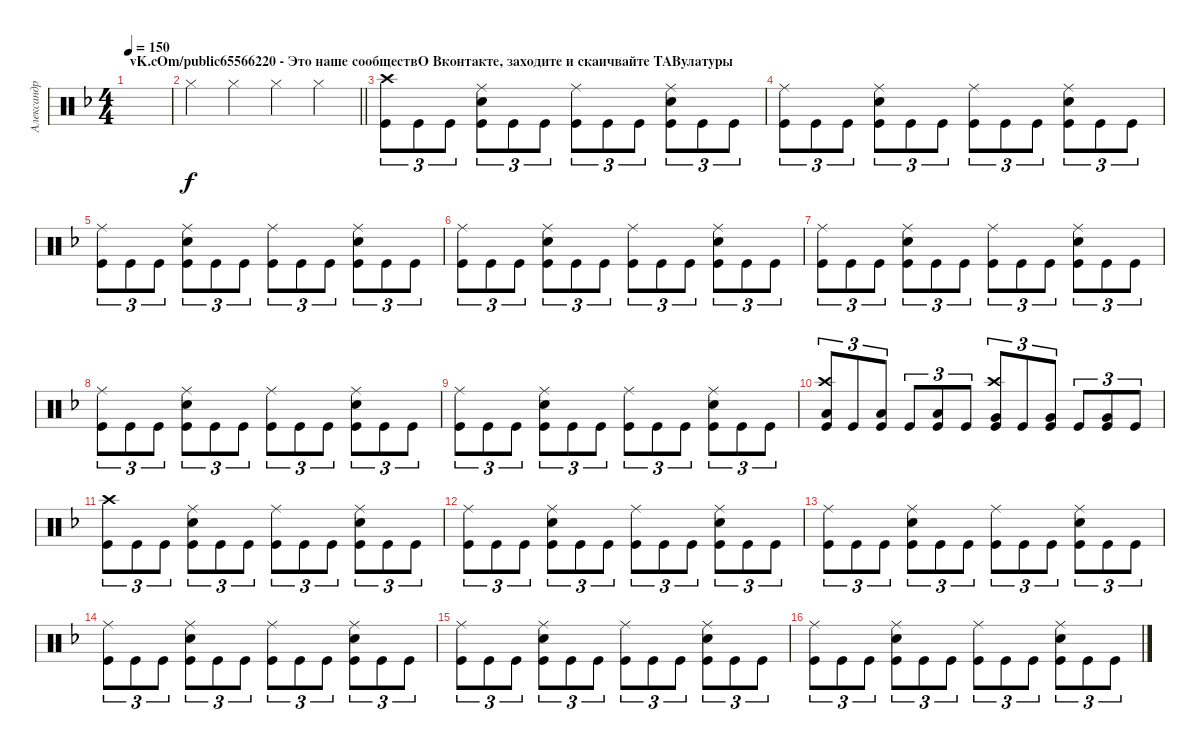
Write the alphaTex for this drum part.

\track ("Александр Манякин" "Александр ") {instrument percussion}
\staff {score}
\articulation defaults
\ts (4 4)
\section ("" "vK.cOm/public65566220 - Это наше сообществО Вконтакте, заходите и скаичвайте TABулатуры")
\tempo 150
\clef neutral
\ks dminor
|
\barLineRight lightlight "Hi-Hat (closed)".4 "Hi-Hat (closed)".4 "Hi-Hat (closed)".4 "Hi-Hat (closed)".4
|
("Kick (hit)" "Crash high (hit)").8{tu (3 2) dy f} "Kick (hit)".8{tu (3 2)} "Kick (hit)".8{tu (3 2)} ("Snare (hit) 2" "Kick (hit)" "Ride (middle)").8{tu (3 2)} "Kick (hit)".8{tu (3 2)} "Kick (hit)".8{tu (3 2)} ("Kick (hit)" "Ride (middle)").8{tu (3 2)} "Kick (hit)".8{tu (3 2)} "Kick (hit)".8{tu (3 2)} ("Kick (hit)" "Snare (hit) 2" "Ride (middle)").8{tu (3 2)} "Kick (hit)".8{tu (3 2)} "Kick (hit)".8{tu (3 2)} |
("Kick (hit)" "Ride (middle)").8{tu (3 2)} "Kick (hit)".8{tu (3 2)} "Kick (hit)".8{tu (3 2)} ("Snare (hit) 2" "Kick (hit)" "Ride (middle)").8{tu (3 2)} "Kick (hit)".8{tu (3 2)} "Kick (hit)".8{tu (3 2)} ("Kick (hit)" "Ride (middle)").8{tu (3 2)} "Kick (hit)".8{tu (3 2)} "Kick (hit)".8{tu (3 2)} ("Kick (hit)" "Snare (hit) 2" "Ride (middle)").8{tu (3 2)} "Kick (hit)".8{tu (3 2)} "Kick (hit)".8{tu (3 2)} |
("Kick (hit)" "Ride (middle)").8{tu (3 2)} "Kick (hit)".8{tu (3 2)} "Kick (hit)".8{tu (3 2)} ("Snare (hit) 2" "Kick (hit)" "Ride (middle)").8{tu (3 2)} "Kick (hit)".8{tu (3 2)} "Kick (hit)".8{tu (3 2)} ("Kick (hit)" "Ride (middle)").8{tu (3 2)} "Kick (hit)".8{tu (3 2)} "Kick (hit)".8{tu (3 2)} ("Kick (hit)" "Snare (hit) 2" "Ride (middle)").8{tu (3 2)} "Kick (hit)".8{tu (3 2)} "Kick (hit)".8{tu (3 2)} |
("Kick (hit)" "Ride (middle)").8{tu (3 2)} "Kick (hit)".8{tu (3 2)} "Kick (hit)".8{tu (3 2)} ("Snare (hit) 2" "Kick (hit)" "Ride (middle)").8{tu (3 2)} "Kick (hit)".8{tu (3 2)} "Kick (hit)".8{tu (3 2)} ("Kick (hit)" "Ride (middle)").8{tu (3 2)} "Kick (hit)".8{tu (3 2)} "Kick (hit)".8{tu (3 2)} ("Kick (hit)" "Snare (hit) 2" "Ride (middle)").8{tu (3 2)} "Kick (hit)".8{tu (3 2)} "Kick (hit)".8{tu (3 2)} |
("Kick (hit)" "Ride (middle)").8{tu (3 2)} "Kick (hit)".8{tu (3 2)} "Kick (hit)".8{tu (3 2)} ("Snare (hit) 2" "Kick (hit)" "Ride (middle)").8{tu (3 2)} "Kick (hit)".8{tu (3 2)} "Kick (hit)".8{tu (3 2)} ("Kick (hit)" "Ride (middle)").8{tu (3 2)} "Kick (hit)".8{tu (3 2)} "Kick (hit)".8{tu (3 2)} ("Kick (hit)" "Snare (hit) 2" "Ride (middle)").8{tu (3 2)} "Kick (hit)".8{tu (3 2)} "Kick (hit)".8{tu (3 2)} |
("Kick (hit)" "Ride (middle)").8{tu (3 2)} "Kick (hit)".8{tu (3 2)} "Kick (hit)".8{tu (3 2)} ("Snare (hit) 2" "Kick (hit)" "Ride (middle)").8{tu (3 2)} "Kick (hit)".8{tu (3 2)} "Kick (hit)".8{tu (3 2)} ("Kick (hit)" "Ride (middle)").8{tu (3 2)} "Kick (hit)".8{tu (3 2)} "Kick (hit)".8{tu (3 2)} ("Kick (hit)" "Snare (hit) 2" "Ride (middle)").8{tu (3 2)} "Kick (hit)".8{tu (3 2)} "Kick (hit)".8{tu (3 2)} |
("Kick (hit)" "Ride (middle)").8{tu (3 2)} "Kick (hit)".8{tu (3 2)} "Kick (hit)".8{tu (3 2)} ("Snare (hit) 2" "Kick (hit)" "Ride (middle)").8{tu (3 2)} "Kick (hit)".8{tu (3 2)} "Kick (hit)".8{tu (3 2)} ("Kick (hit)" "Ride (middle)").8{tu (3 2)} "Kick (hit)".8{tu (3 2)} "Kick (hit)".8{tu (3 2)} ("Kick (hit)" "Snare (hit) 2" "Ride (middle)").8{tu (3 2)} "Kick (hit)".8{tu (3 2)} "Kick (hit)".8{tu (3 2)} |
("Kick (hit)" "Crash high (hit)" "Low Tom (hit)").8{tu (3 2)} "Kick (hit)".8{tu (3 2)} ("Kick (hit)" "Low Tom (hit)").8{tu (3 2)} "Kick (hit)".8{tu (3 2)} ("Kick (hit)" "Low Tom (hit)").8{tu (3 2)} "Kick (hit)".8{tu (3 2)} ("Kick (hit)" "Crash high (hit)" "Very Low Tom (hit)").8{tu (3 2)} "Kick (hit)".8{tu (3 2)} ("Kick (hit)" "Very Low Tom (hit)").8{tu (3 2)} "Kick (hit)".8{tu (3 2)} ("Kick (hit)" "Very Low Tom (hit)").8{tu (3 2)} "Kick (hit)".8{tu (3 2)} |
("Kick (hit)" "Crash high (hit)").8{tu (3 2)} "Kick (hit)".8{tu (3 2)} "Kick (hit)".8{tu (3 2)} ("Snare (hit) 2" "Kick (hit)" "Ride (middle)").8{tu (3 2)} "Kick (hit)".8{tu (3 2)} "Kick (hit)".8{tu (3 2)} ("Kick (hit)" "Ride (middle)").8{tu (3 2)} "Kick (hit)".8{tu (3 2)} "Kick (hit)".8{tu (3 2)} ("Kick (hit)" "Snare (hit) 2" "Ride (middle)").8{tu (3 2)} "Kick (hit)".8{tu (3 2)} "Kick (hit)".8{tu (3 2)} |
("Kick (hit)" "Ride (middle)").8{tu (3 2)} "Kick (hit)".8{tu (3 2)} "Kick (hit)".8{tu (3 2)} ("Snare (hit) 2" "Kick (hit)" "Ride (middle)").8{tu (3 2)} "Kick (hit)".8{tu (3 2)} "Kick (hit)".8{tu (3 2)} ("Kick (hit)" "Ride (middle)").8{tu (3 2)} "Kick (hit)".8{tu (3 2)} "Kick (hit)".8{tu (3 2)} ("Kick (hit)" "Snare (hit) 2" "Ride (middle)").8{tu (3 2)} "Kick (hit)".8{tu (3 2)} "Kick (hit)".8{tu (3 2)} |
("Kick (hit)" "Ride (middle)").8{tu (3 2)} "Kick (hit)".8{tu (3 2)} "Kick (hit)".8{tu (3 2)} ("Snare (hit) 2" "Kick (hit)" "Ride (middle)").8{tu (3 2)} "Kick (hit)".8{tu (3 2)} "Kick (hit)".8{tu (3 2)} ("Kick (hit)" "Ride (middle)").8{tu (3 2)} "Kick (hit)".8{tu (3 2)} "Kick (hit)".8{tu (3 2)} ("Kick (hit)" "Snare (hit) 2" "Ride (middle)").8{tu (3 2)} "Kick (hit)".8{tu (3 2)} "Kick (hit)".8{tu (3 2)} |
("Kick (hit)" "Ride (middle)").8{tu (3 2)} "Kick (hit)".8{tu (3 2)} "Kick (hit)".8{tu (3 2)} ("Snare (hit) 2" "Kick (hit)" "Ride (middle)").8{tu (3 2)} "Kick (hit)".8{tu (3 2)} "Kick (hit)".8{tu (3 2)} ("Kick (hit)" "Ride (middle)").8{tu (3 2)} "Kick (hit)".8{tu (3 2)} "Kick (hit)".8{tu (3 2)} ("Kick (hit)" "Snare (hit) 2" "Ride (middle)").8{tu (3 2)} "Kick (hit)".8{tu (3 2)} "Kick (hit)".8{tu (3 2)} |
("Kick (hit)" "Ride (middle)").8{tu (3 2)} "Kick (hit)".8{tu (3 2)} "Kick (hit)".8{tu (3 2)} ("Snare (hit) 2" "Kick (hit)" "Ride (middle)").8{tu (3 2)} "Kick (hit)".8{tu (3 2)} "Kick (hit)".8{tu (3 2)} ("Kick (hit)" "Ride (middle)").8{tu (3 2)} "Kick (hit)".8{tu (3 2)} "Kick (hit)".8{tu (3 2)} ("Kick (hit)" "Snare (hit) 2" "Ride (middle)").8{tu (3 2)} "Kick (hit)".8{tu (3 2)} "Kick (hit)".8{tu (3 2)} |
("Kick (hit)" "Ride (middle)").8{tu (3 2)} "Kick (hit)".8{tu (3 2)} "Kick (hit)".8{tu (3 2)} ("Snare (hit) 2" "Kick (hit)" "Ride (middle)").8{tu (3 2)} "Kick (hit)".8{tu (3 2)} "Kick (hit)".8{tu (3 2)} ("Kick (hit)" "Ride (middle)").8{tu (3 2)} "Kick (hit)".8{tu (3 2)} "Kick (hit)".8{tu (3 2)} ("Kick (hit)" "Snare (hit) 2" "Ride (middle)").8{tu (3 2)} "Kick (hit)".8{tu (3 2)} "Kick (hit)".8{tu (3 2)}
